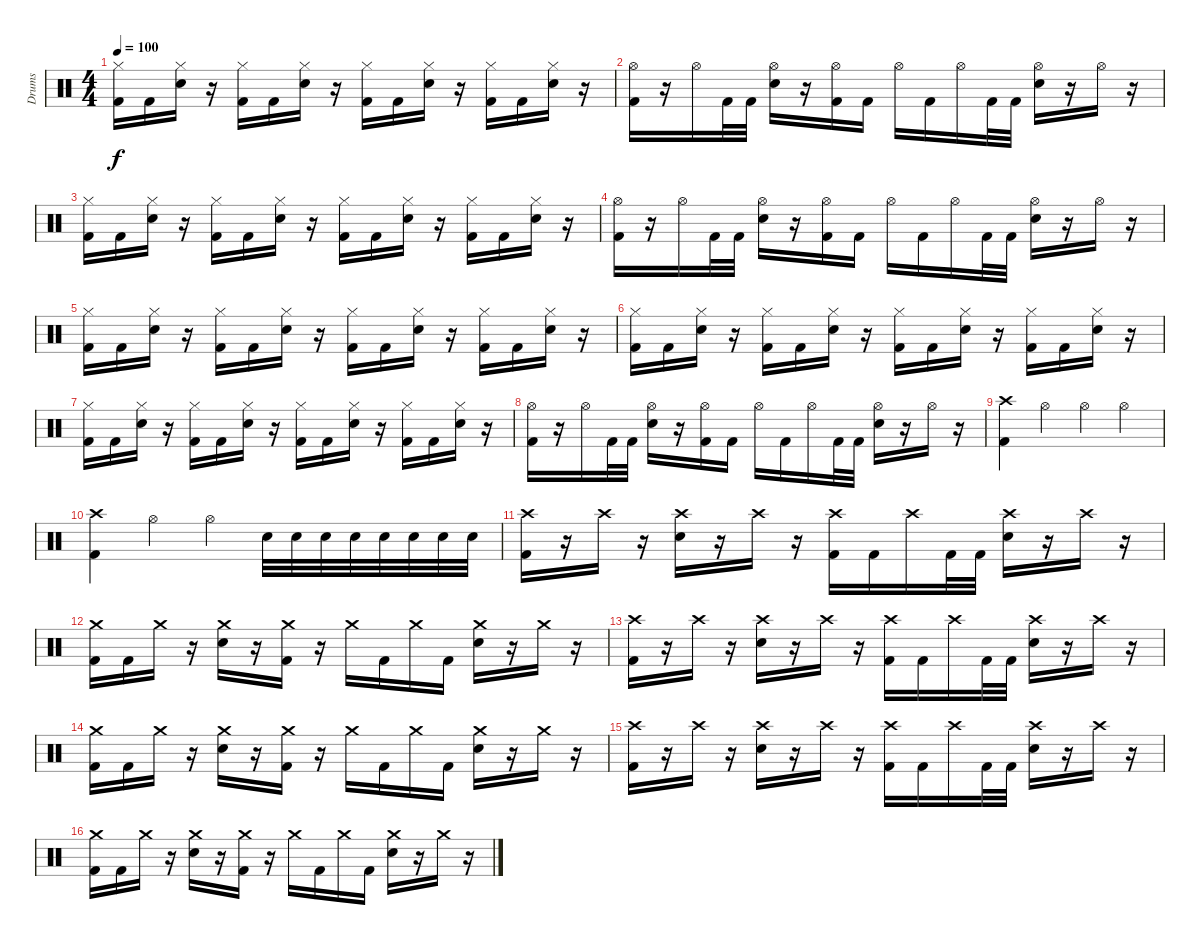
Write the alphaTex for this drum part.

\track ("Drums" "Drums") {instrument percussion}
\staff {score}
\articulation defaults
\ts (4 4)
\tempo 100
\clef neutral
\ks c
("Kick (hit) 2" "Hi-Hat (closed)").16{dy f} "Kick (hit) 2".16 ("Snare (hit) 2" "Hi-Hat (closed)").16 r.16 ("Kick (hit) 2" "Hi-Hat (closed)").16 "Kick (hit) 2".16 ("Snare (hit) 2" "Hi-Hat (closed)").16 r.16 ("Kick (hit) 2" "Hi-Hat (closed)").16 "Kick (hit) 2".16 ("Snare (hit) 2" "Hi-Hat (closed)").16 r.16 ("Kick (hit) 2" "Hi-Hat (closed)").16 "Kick (hit) 2".16 ("Snare (hit) 2" "Hi-Hat (closed)").16 r.16 |
("Hi-Hat (open)" "Kick (hit) 2").16 r.16 "Hi-Hat (open)".16 "Kick (hit) 2".32 "Kick (hit) 2".32 ("Hi-Hat (open)" "Snare (hit) 2").16 r.16 ("Hi-Hat (open)" "Kick (hit) 2").16 "Kick (hit) 2".16 "Hi-Hat (open)".16 "Kick (hit) 2".16 "Hi-Hat (open)".16 "Kick (hit) 2".32 "Kick (hit) 2".32 ("Hi-Hat (open)" "Snare (hit) 2").16 r.16 "Hi-Hat (open)".16 r.16 |
("Kick (hit) 2" "Hi-Hat (closed)").16 "Kick (hit) 2".16 ("Snare (hit) 2" "Hi-Hat (closed)").16 r.16 ("Kick (hit) 2" "Hi-Hat (closed)").16 "Kick (hit) 2".16 ("Snare (hit) 2" "Hi-Hat (closed)").16 r.16 ("Kick (hit) 2" "Hi-Hat (closed)").16 "Kick (hit) 2".16 ("Snare (hit) 2" "Hi-Hat (closed)").16 r.16 ("Kick (hit) 2" "Hi-Hat (closed)").16 "Kick (hit) 2".16 ("Snare (hit) 2" "Hi-Hat (closed)").16 r.16 |
("Hi-Hat (open)" "Kick (hit) 2").16 r.16 "Hi-Hat (open)".16 "Kick (hit) 2".32 "Kick (hit) 2".32 ("Hi-Hat (open)" "Snare (hit) 2").16 r.16 ("Hi-Hat (open)" "Kick (hit) 2").16 "Kick (hit) 2".16 "Hi-Hat (open)".16 "Kick (hit) 2".16 "Hi-Hat (open)".16 "Kick (hit) 2".32 "Kick (hit) 2".32 ("Hi-Hat (open)" "Snare (hit) 2").16 r.16 "Hi-Hat (open)".16 r.16 |
("Kick (hit) 2" "Hi-Hat (closed)").16 "Kick (hit) 2".16 ("Snare (hit) 2" "Hi-Hat (closed)").16 r.16 ("Kick (hit) 2" "Hi-Hat (closed)").16 "Kick (hit) 2".16 ("Snare (hit) 2" "Hi-Hat (closed)").16 r.16 ("Kick (hit) 2" "Hi-Hat (closed)").16 "Kick (hit) 2".16 ("Snare (hit) 2" "Hi-Hat (closed)").16 r.16 ("Kick (hit) 2" "Hi-Hat (closed)").16 "Kick (hit) 2".16 ("Snare (hit) 2" "Hi-Hat (closed)").16 r.16 |
("Kick (hit) 2" "Hi-Hat (closed)").16 "Kick (hit) 2".16 ("Snare (hit) 2" "Hi-Hat (closed)").16 r.16 ("Kick (hit) 2" "Hi-Hat (closed)").16 "Kick (hit) 2".16 ("Snare (hit) 2" "Hi-Hat (closed)").16 r.16 ("Kick (hit) 2" "Hi-Hat (closed)").16 "Kick (hit) 2".16 ("Snare (hit) 2" "Hi-Hat (closed)").16 r.16 ("Kick (hit) 2" "Hi-Hat (closed)").16 "Kick (hit) 2".16 ("Snare (hit) 2" "Hi-Hat (closed)").16 r.16 |
("Kick (hit) 2" "Hi-Hat (closed)").16 "Kick (hit) 2".16 ("Snare (hit) 2" "Hi-Hat (closed)").16 r.16 ("Kick (hit) 2" "Hi-Hat (closed)").16 "Kick (hit) 2".16 ("Snare (hit) 2" "Hi-Hat (closed)").16 r.16 ("Kick (hit) 2" "Hi-Hat (closed)").16 "Kick (hit) 2".16 ("Snare (hit) 2" "Hi-Hat (closed)").16 r.16 ("Kick (hit) 2" "Hi-Hat (closed)").16 "Kick (hit) 2".16 ("Snare (hit) 2" "Hi-Hat (closed)").16 r.16 |
("Hi-Hat (open)" "Kick (hit) 2").16 r.16 "Hi-Hat (open)".16 "Kick (hit) 2".32 "Kick (hit) 2".32 ("Hi-Hat (open)" "Snare (hit) 2").16 r.16 ("Hi-Hat (open)" "Kick (hit) 2").16 "Kick (hit) 2".16 "Hi-Hat (open)".16 "Kick (hit) 2".16 "Hi-Hat (open)".16 "Kick (hit) 2".32 "Kick (hit) 2".32 ("Hi-Hat (open)" "Snare (hit) 2").16 r.16 "Hi-Hat (open)".16 r.16 |
("Kick (hit) 2" "Crash high (hit)").4 "Hi-Hat (open)".4 "Hi-Hat (open)".4 "Hi-Hat (open)".4 |
("Crash high (hit)" "Kick (hit) 2").4 "Hi-Hat (open)".4 "Hi-Hat (open)".4 "Snare (hit) 2".32 "Snare (hit) 2".32 "Snare (hit) 2".32 "Snare (hit) 2".32 "Snare (hit) 2".32 "Snare (hit) 2".32 "Snare (hit) 2".32 "Snare (hit) 2".32 |
("Crash high (hit)" "Kick (hit) 2").16 r.16 "Crash high (hit)".16 r.16 ("Crash high (hit)" "Snare (hit) 2").16 r.16 "Crash high (hit)".16 r.16 ("Crash high (hit)" "Kick (hit) 2").16 "Kick (hit) 2".16 "Crash high (hit)".16 "Kick (hit) 2".32 "Kick (hit) 2".32 ("Crash high (hit)" "Snare (hit) 2").16 r.16 "Crash high (hit)".16 r.16 |
("Crash medium (hit)" "Kick (hit) 2").16 "Kick (hit) 2".16 "Crash medium (hit)".16 r.16 ("Crash medium (hit)" "Snare (hit) 2").16 r.16 ("Crash medium (hit)" "Kick (hit) 2").16 r.16 "Crash medium (hit)".16 "Kick (hit) 2".16 "Crash medium (hit)".16 "Kick (hit) 2".16 ("Crash medium (hit)" "Snare (hit) 2").16 r.16 "Crash medium (hit)".16 r.16 |
("Crash high (hit)" "Kick (hit) 2").16 r.16 "Crash high (hit)".16 r.16 ("Crash high (hit)" "Snare (hit) 2").16 r.16 "Crash high (hit)".16 r.16 ("Crash high (hit)" "Kick (hit) 2").16 "Kick (hit) 2".16 "Crash high (hit)".16 "Kick (hit) 2".32 "Kick (hit) 2".32 ("Crash high (hit)" "Snare (hit) 2").16 r.16 "Crash high (hit)".16 r.16 |
("Crash medium (hit)" "Kick (hit) 2").16 "Kick (hit) 2".16 "Crash medium (hit)".16 r.16 ("Crash medium (hit)" "Snare (hit) 2").16 r.16 ("Crash medium (hit)" "Kick (hit) 2").16 r.16 "Crash medium (hit)".16 "Kick (hit) 2".16 "Crash medium (hit)".16 "Kick (hit) 2".16 ("Crash medium (hit)" "Snare (hit) 2").16 r.16 "Crash medium (hit)".16 r.16 |
("Crash high (hit)" "Kick (hit) 2").16 r.16 "Crash high (hit)".16 r.16 ("Crash high (hit)" "Snare (hit) 2").16 r.16 "Crash high (hit)".16 r.16 ("Crash high (hit)" "Kick (hit) 2").16 "Kick (hit) 2".16 "Crash high (hit)".16 "Kick (hit) 2".32 "Kick (hit) 2".32 ("Crash high (hit)" "Snare (hit) 2").16 r.16 "Crash high (hit)".16 r.16 |
("Crash medium (hit)" "Kick (hit) 2").16 "Kick (hit) 2".16 "Crash medium (hit)".16 r.16 ("Crash medium (hit)" "Snare (hit) 2").16 r.16 ("Crash medium (hit)" "Kick (hit) 2").16 r.16 "Crash medium (hit)".16 "Kick (hit) 2".16 "Crash medium (hit)".16 "Kick (hit) 2".16 ("Crash medium (hit)" "Snare (hit) 2").16 r.16 "Crash medium (hit)".16 r.16
